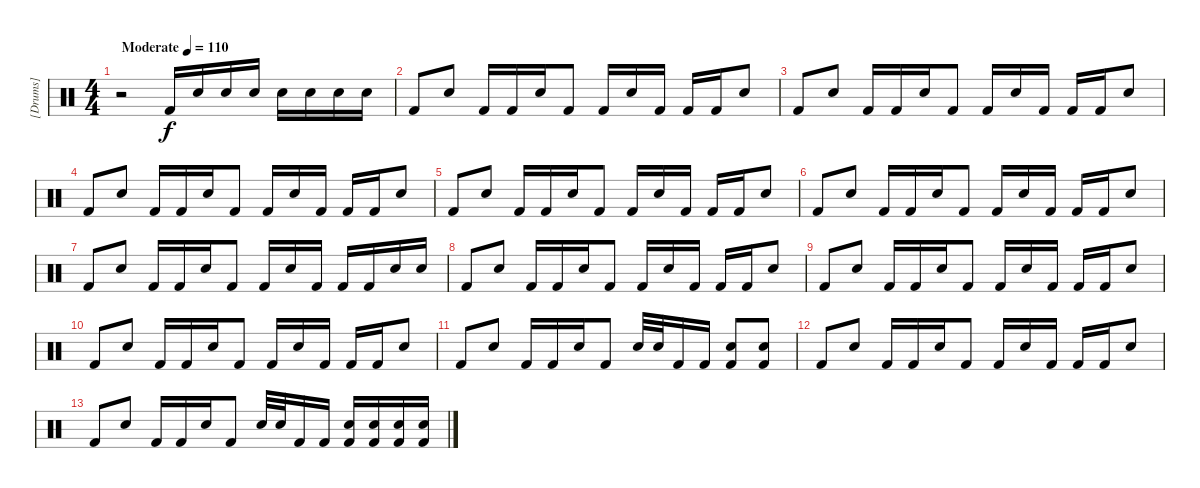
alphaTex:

\track ("[Drums]" "[Drums]") {instrument percussion}
\staff {score}
\articulation defaults
\ts (4 4)
\tempo (110 "Moderate")
\clef neutral
\ks c
r.2{dy f} "Kick (hit) 2".16 "Electric Snare (hit)".16 "Electric Snare (hit)".16 "Electric Snare (hit)".16 "Electric Snare (hit)".16 "Electric Snare (hit)".16 "Electric Snare (hit)".16 "Electric Snare (hit)".16 |
"Kick (hit) 2".8 "Electric Snare (hit)".8 "Kick (hit) 2".16 "Kick (hit) 2".16 "Electric Snare (hit)".16 "Kick (hit) 2".8 "Kick (hit) 2".16 "Electric Snare (hit)".16 "Kick (hit) 2".16 "Kick (hit) 2".16 "Kick (hit) 2".16 "Electric Snare (hit)".8 |
"Kick (hit) 2".8 "Electric Snare (hit)".8 "Kick (hit) 2".16 "Kick (hit) 2".16 "Electric Snare (hit)".16 "Kick (hit) 2".8 "Kick (hit) 2".16 "Electric Snare (hit)".16 "Kick (hit) 2".16 "Kick (hit) 2".16 "Kick (hit) 2".16 "Electric Snare (hit)".8 |
"Kick (hit) 2".8 "Electric Snare (hit)".8 "Kick (hit) 2".16 "Kick (hit) 2".16 "Electric Snare (hit)".16 "Kick (hit) 2".8 "Kick (hit) 2".16 "Electric Snare (hit)".16 "Kick (hit) 2".16 "Kick (hit) 2".16 "Kick (hit) 2".16 "Electric Snare (hit)".8 |
"Kick (hit) 2".8 "Electric Snare (hit)".8 "Kick (hit) 2".16 "Kick (hit) 2".16 "Electric Snare (hit)".16 "Kick (hit) 2".8 "Kick (hit) 2".16 "Electric Snare (hit)".16 "Kick (hit) 2".16 "Kick (hit) 2".16 "Kick (hit) 2".16 "Electric Snare (hit)".8 |
"Kick (hit) 2".8 "Electric Snare (hit)".8 "Kick (hit) 2".16 "Kick (hit) 2".16 "Electric Snare (hit)".16 "Kick (hit) 2".8 "Kick (hit) 2".16 "Electric Snare (hit)".16 "Kick (hit) 2".16 "Kick (hit) 2".16 "Kick (hit) 2".16 "Electric Snare (hit)".8 |
"Kick (hit) 2".8 "Electric Snare (hit)".8 "Kick (hit) 2".16 "Kick (hit) 2".16 "Electric Snare (hit)".16 "Kick (hit) 2".8 "Kick (hit) 2".16 "Electric Snare (hit)".16 "Kick (hit) 2".16 "Kick (hit) 2".16 "Kick (hit) 2".16 "Electric Snare (hit)".16 "Electric Snare (hit)".16 |
"Kick (hit) 2".8 "Electric Snare (hit)".8 "Kick (hit) 2".16 "Kick (hit) 2".16 "Electric Snare (hit)".16 "Kick (hit) 2".8 "Kick (hit) 2".16 "Electric Snare (hit)".16 "Kick (hit) 2".16 "Kick (hit) 2".16 "Kick (hit) 2".16 "Electric Snare (hit)".8 |
"Kick (hit) 2".8 "Electric Snare (hit)".8 "Kick (hit) 2".16 "Kick (hit) 2".16 "Electric Snare (hit)".16 "Kick (hit) 2".8 "Kick (hit) 2".16 "Electric Snare (hit)".16 "Kick (hit) 2".16 "Kick (hit) 2".16 "Kick (hit) 2".16 "Electric Snare (hit)".8 |
"Kick (hit) 2".8 "Electric Snare (hit)".8 "Kick (hit) 2".16 "Kick (hit) 2".16 "Electric Snare (hit)".16 "Kick (hit) 2".8 "Kick (hit) 2".16 "Electric Snare (hit)".16 "Kick (hit) 2".16 "Kick (hit) 2".16 "Kick (hit) 2".16 "Electric Snare (hit)".8 |
"Kick (hit) 2".8 "Electric Snare (hit)".8 "Kick (hit) 2".16 "Kick (hit) 2".16 "Electric Snare (hit)".16 "Kick (hit) 2".8 "Electric Snare (hit)".32 "Electric Snare (hit)".32 "Kick (hit) 2".16 "Kick (hit) 2".16 ("Snare (hit) 2" "Kick (hit) 2").8 ("Snare (hit) 2" "Kick (hit) 2").8 |
"Kick (hit) 2".8 "Electric Snare (hit)".8 "Kick (hit) 2".16 "Kick (hit) 2".16 "Electric Snare (hit)".16 "Kick (hit) 2".8 "Kick (hit) 2".16 "Electric Snare (hit)".16 "Kick (hit) 2".16 "Kick (hit) 2".16 "Kick (hit) 2".16 "Electric Snare (hit)".8 |
"Kick (hit) 2".8 "Electric Snare (hit)".8 "Kick (hit) 2".16 "Kick (hit) 2".16 "Electric Snare (hit)".16 "Kick (hit) 2".8 "Electric Snare (hit)".32 "Electric Snare (hit)".32 "Kick (hit) 2".16 "Kick (hit) 2".16 ("Snare (hit) 2" "Kick (hit) 2").16 ("Snare (hit) 2" "Kick (hit) 2").16 ("Snare (hit) 2" "Kick (hit) 2").16 ("Snare (hit) 2" "Kick (hit) 2").16
